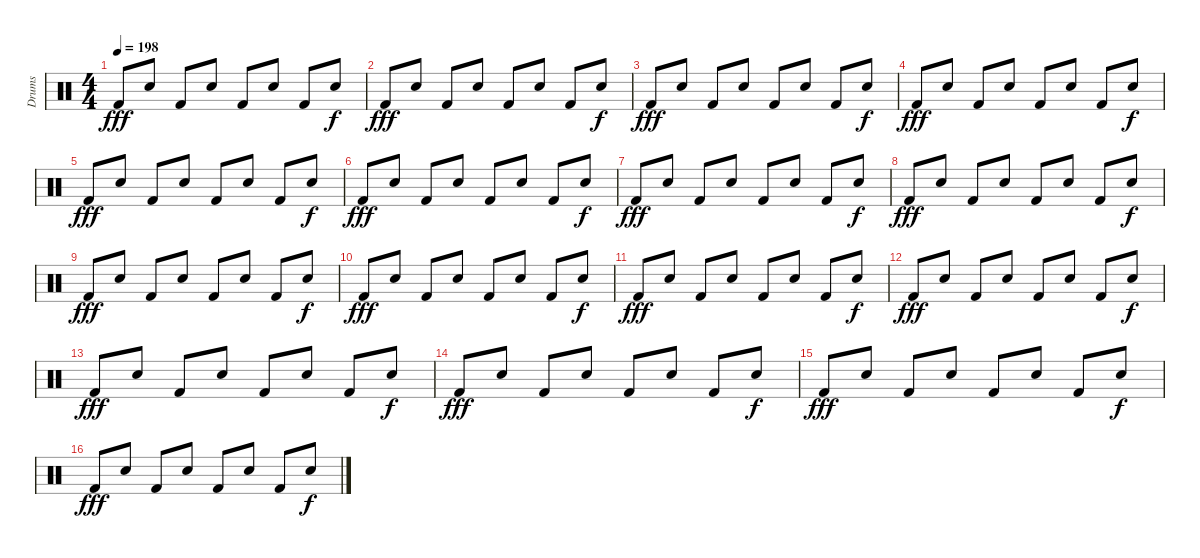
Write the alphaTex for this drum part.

\track ("Drums" "Drums") {instrument percussion}
\staff {score}
\articulation defaults
\ts (4 4)
\tempo 198
\clef neutral
\ks c "Kick (hit) 2".8{dy fff} "Snare (hit) 2".8 "Kick (hit) 2".8 "Snare (hit) 2".8 "Kick (hit) 2".8 "Snare (hit) 2".8 "Kick (hit) 2".8 "Snare (hit) 2".8{dy f}
|
"Kick (hit) 2".8{dy fff} "Snare (hit) 2".8 "Kick (hit) 2".8 "Snare (hit) 2".8 "Kick (hit) 2".8 "Snare (hit) 2".8 "Kick (hit) 2".8 "Snare (hit) 2".8{dy f} |
"Kick (hit) 2".8{dy fff} "Snare (hit) 2".8 "Kick (hit) 2".8 "Snare (hit) 2".8 "Kick (hit) 2".8 "Snare (hit) 2".8 "Kick (hit) 2".8 "Snare (hit) 2".8{dy f} |
"Kick (hit) 2".8{dy fff} "Snare (hit) 2".8 "Kick (hit) 2".8 "Snare (hit) 2".8 "Kick (hit) 2".8 "Snare (hit) 2".8 "Kick (hit) 2".8 "Snare (hit) 2".8{dy f} |
"Kick (hit) 2".8{dy fff} "Snare (hit) 2".8 "Kick (hit) 2".8 "Snare (hit) 2".8 "Kick (hit) 2".8 "Snare (hit) 2".8 "Kick (hit) 2".8 "Snare (hit) 2".8{dy f} |
"Kick (hit) 2".8{dy fff} "Snare (hit) 2".8 "Kick (hit) 2".8 "Snare (hit) 2".8 "Kick (hit) 2".8 "Snare (hit) 2".8 "Kick (hit) 2".8 "Snare (hit) 2".8{dy f} |
"Kick (hit) 2".8{dy fff} "Snare (hit) 2".8 "Kick (hit) 2".8 "Snare (hit) 2".8 "Kick (hit) 2".8 "Snare (hit) 2".8 "Kick (hit) 2".8 "Snare (hit) 2".8{dy f} |
"Kick (hit) 2".8{dy fff} "Snare (hit) 2".8 "Kick (hit) 2".8 "Snare (hit) 2".8 "Kick (hit) 2".8 "Snare (hit) 2".8 "Kick (hit) 2".8 "Snare (hit) 2".8{dy f} |
"Kick (hit) 2".8{dy fff} "Snare (hit) 2".8 "Kick (hit) 2".8 "Snare (hit) 2".8 "Kick (hit) 2".8 "Snare (hit) 2".8 "Kick (hit) 2".8 "Snare (hit) 2".8{dy f} |
"Kick (hit) 2".8{dy fff} "Snare (hit) 2".8 "Kick (hit) 2".8 "Snare (hit) 2".8 "Kick (hit) 2".8 "Snare (hit) 2".8 "Kick (hit) 2".8 "Snare (hit) 2".8{dy f} |
"Kick (hit) 2".8{dy fff} "Snare (hit) 2".8 "Kick (hit) 2".8 "Snare (hit) 2".8 "Kick (hit) 2".8 "Snare (hit) 2".8 "Kick (hit) 2".8 "Snare (hit) 2".8{dy f} |
"Kick (hit) 2".8{dy fff} "Snare (hit) 2".8 "Kick (hit) 2".8 "Snare (hit) 2".8 "Kick (hit) 2".8 "Snare (hit) 2".8 "Kick (hit) 2".8 "Snare (hit) 2".8{dy f} |
"Kick (hit) 2".8{dy fff} "Snare (hit) 2".8 "Kick (hit) 2".8 "Snare (hit) 2".8 "Kick (hit) 2".8 "Snare (hit) 2".8 "Kick (hit) 2".8 "Snare (hit) 2".8{dy f} |
"Kick (hit) 2".8{dy fff} "Snare (hit) 2".8 "Kick (hit) 2".8 "Snare (hit) 2".8 "Kick (hit) 2".8 "Snare (hit) 2".8 "Kick (hit) 2".8 "Snare (hit) 2".8{dy f} |
"Kick (hit) 2".8{dy fff} "Snare (hit) 2".8 "Kick (hit) 2".8 "Snare (hit) 2".8 "Kick (hit) 2".8 "Snare (hit) 2".8 "Kick (hit) 2".8 "Snare (hit) 2".8{dy f} |
"Kick (hit) 2".8{dy fff} "Snare (hit) 2".8 "Kick (hit) 2".8 "Snare (hit) 2".8 "Kick (hit) 2".8 "Snare (hit) 2".8 "Kick (hit) 2".8 "Snare (hit) 2".8{dy f}
